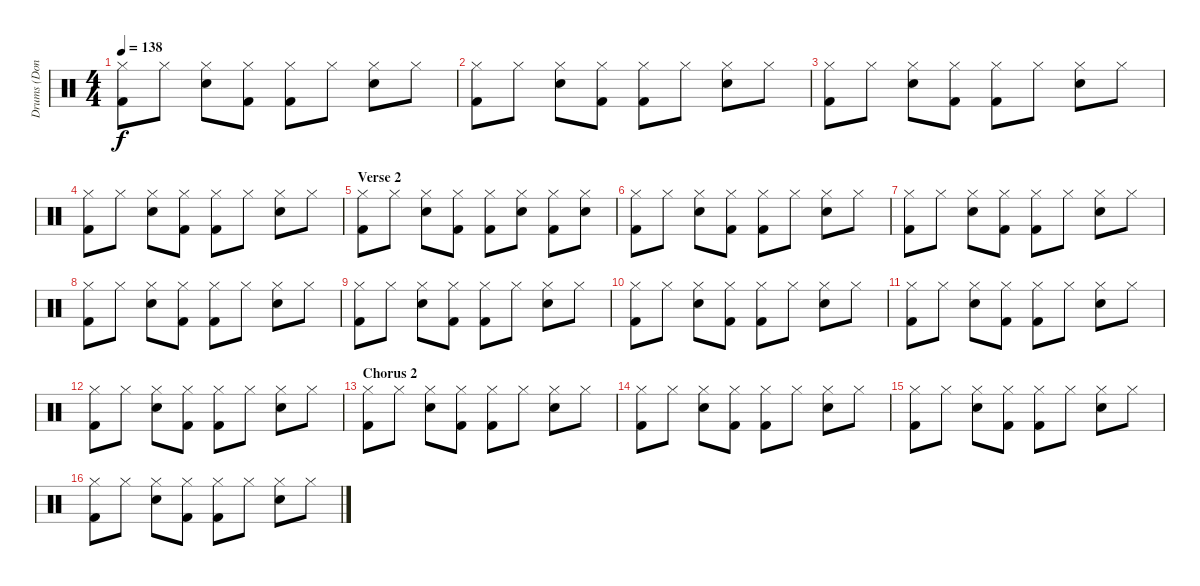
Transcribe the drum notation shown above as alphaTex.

\track ("Drums (Don Henley)" "Drums (Don") {instrument percussion}
\staff {score}
\articulation defaults
\ts (4 4)
\tempo 138
\clef neutral
\ks c
("Hi-Hat (closed)" "Kick (hit) 2").8{dy f} "Hi-Hat (closed)".8 ("Hi-Hat (closed)" "Snare (hit) 2").8 ("Hi-Hat (closed)" "Kick (hit) 2").8 ("Hi-Hat (closed)" "Kick (hit) 2").8 "Hi-Hat (closed)".8 ("Hi-Hat (closed)" "Snare (hit) 2").8 "Hi-Hat (closed)".8 |
("Hi-Hat (closed)" "Kick (hit) 2").8 "Hi-Hat (closed)".8 ("Hi-Hat (closed)" "Snare (hit) 2").8 ("Hi-Hat (closed)" "Kick (hit) 2").8 ("Hi-Hat (closed)" "Kick (hit) 2").8 "Hi-Hat (closed)".8 ("Hi-Hat (closed)" "Snare (hit) 2").8 "Hi-Hat (closed)".8 |
("Hi-Hat (closed)" "Kick (hit) 2").8 "Hi-Hat (closed)".8 ("Hi-Hat (closed)" "Snare (hit) 2").8 ("Hi-Hat (closed)" "Kick (hit) 2").8 ("Hi-Hat (closed)" "Kick (hit) 2").8 "Hi-Hat (closed)".8 ("Hi-Hat (closed)" "Snare (hit) 2").8 "Hi-Hat (closed)".8 |
("Hi-Hat (closed)" "Kick (hit) 2").8 "Hi-Hat (closed)".8 ("Hi-Hat (closed)" "Snare (hit) 2").8 ("Hi-Hat (closed)" "Kick (hit) 2").8 ("Hi-Hat (closed)" "Kick (hit) 2").8 "Hi-Hat (closed)".8 ("Hi-Hat (closed)" "Snare (hit) 2").8 "Hi-Hat (closed)".8 |
\section ("" "Verse 2")
("Hi-Hat (closed)" "Kick (hit) 2").8 "Hi-Hat (closed)".8 ("Hi-Hat (closed)" "Snare (hit) 2").8 ("Hi-Hat (closed)" "Kick (hit) 2").8 ("Hi-Hat (closed)" "Kick (hit) 2").8 ("Hi-Hat (closed)" "Snare (hit) 2").8 ("Hi-Hat (closed)" "Kick (hit) 2").8 ("Hi-Hat (closed)" "Snare (hit) 2").8 |
("Hi-Hat (closed)" "Kick (hit) 2").8 "Hi-Hat (closed)".8 ("Hi-Hat (closed)" "Snare (hit) 2").8 ("Hi-Hat (closed)" "Kick (hit) 2").8 ("Hi-Hat (closed)" "Kick (hit) 2").8 "Hi-Hat (closed)".8 ("Hi-Hat (closed)" "Snare (hit) 2").8 "Hi-Hat (closed)".8 |
("Hi-Hat (closed)" "Kick (hit) 2").8 "Hi-Hat (closed)".8 ("Hi-Hat (closed)" "Snare (hit) 2").8 ("Hi-Hat (closed)" "Kick (hit) 2").8 ("Hi-Hat (closed)" "Kick (hit) 2").8 "Hi-Hat (closed)".8 ("Hi-Hat (closed)" "Snare (hit) 2").8 "Hi-Hat (closed)".8 |
("Hi-Hat (closed)" "Kick (hit) 2").8 "Hi-Hat (closed)".8 ("Hi-Hat (closed)" "Snare (hit) 2").8 ("Hi-Hat (closed)" "Kick (hit) 2").8 ("Hi-Hat (closed)" "Kick (hit) 2").8 "Hi-Hat (closed)".8 ("Hi-Hat (closed)" "Snare (hit) 2").8 "Hi-Hat (closed)".8 |
("Hi-Hat (closed)" "Kick (hit) 2").8 "Hi-Hat (closed)".8 ("Hi-Hat (closed)" "Snare (hit) 2").8 ("Hi-Hat (closed)" "Kick (hit) 2").8 ("Hi-Hat (closed)" "Kick (hit) 2").8 "Hi-Hat (closed)".8 ("Hi-Hat (closed)" "Snare (hit) 2").8 "Hi-Hat (closed)".8 |
("Hi-Hat (closed)" "Kick (hit) 2").8 "Hi-Hat (closed)".8 ("Hi-Hat (closed)" "Snare (hit) 2").8 ("Hi-Hat (closed)" "Kick (hit) 2").8 ("Hi-Hat (closed)" "Kick (hit) 2").8 "Hi-Hat (closed)".8 ("Hi-Hat (closed)" "Snare (hit) 2").8 "Hi-Hat (closed)".8 |
("Hi-Hat (closed)" "Kick (hit) 2").8 "Hi-Hat (closed)".8 ("Hi-Hat (closed)" "Snare (hit) 2").8 ("Hi-Hat (closed)" "Kick (hit) 2").8 ("Hi-Hat (closed)" "Kick (hit) 2").8 "Hi-Hat (closed)".8 ("Hi-Hat (closed)" "Snare (hit) 2").8 "Hi-Hat (closed)".8 |
("Hi-Hat (closed)" "Kick (hit) 2").8 "Hi-Hat (closed)".8 ("Hi-Hat (closed)" "Snare (hit) 2").8 ("Hi-Hat (closed)" "Kick (hit) 2").8 ("Hi-Hat (closed)" "Kick (hit) 2").8 "Hi-Hat (closed)".8 ("Hi-Hat (closed)" "Snare (hit) 2").8 "Hi-Hat (closed)".8 |
\section ("" "Chorus 2")
("Hi-Hat (closed)" "Kick (hit) 2").8 "Hi-Hat (closed)".8 ("Hi-Hat (closed)" "Snare (hit) 2").8 ("Hi-Hat (closed)" "Kick (hit) 2").8 ("Hi-Hat (closed)" "Kick (hit) 2").8 "Hi-Hat (closed)".8 ("Hi-Hat (closed)" "Snare (hit) 2").8 "Hi-Hat (closed)".8 |
("Hi-Hat (closed)" "Kick (hit) 2").8 "Hi-Hat (closed)".8 ("Hi-Hat (closed)" "Snare (hit) 2").8 ("Hi-Hat (closed)" "Kick (hit) 2").8 ("Hi-Hat (closed)" "Kick (hit) 2").8 "Hi-Hat (closed)".8 ("Hi-Hat (closed)" "Snare (hit) 2").8 "Hi-Hat (closed)".8 |
("Hi-Hat (closed)" "Kick (hit) 2").8 "Hi-Hat (closed)".8 ("Hi-Hat (closed)" "Snare (hit) 2").8 ("Hi-Hat (closed)" "Kick (hit) 2").8 ("Hi-Hat (closed)" "Kick (hit) 2").8 "Hi-Hat (closed)".8 ("Hi-Hat (closed)" "Snare (hit) 2").8 "Hi-Hat (closed)".8 |
("Hi-Hat (closed)" "Kick (hit) 2").8 "Hi-Hat (closed)".8 ("Hi-Hat (closed)" "Snare (hit) 2").8 ("Hi-Hat (closed)" "Kick (hit) 2").8 ("Hi-Hat (closed)" "Kick (hit) 2").8 "Hi-Hat (closed)".8 ("Hi-Hat (closed)" "Snare (hit) 2").8 "Hi-Hat (closed)".8
